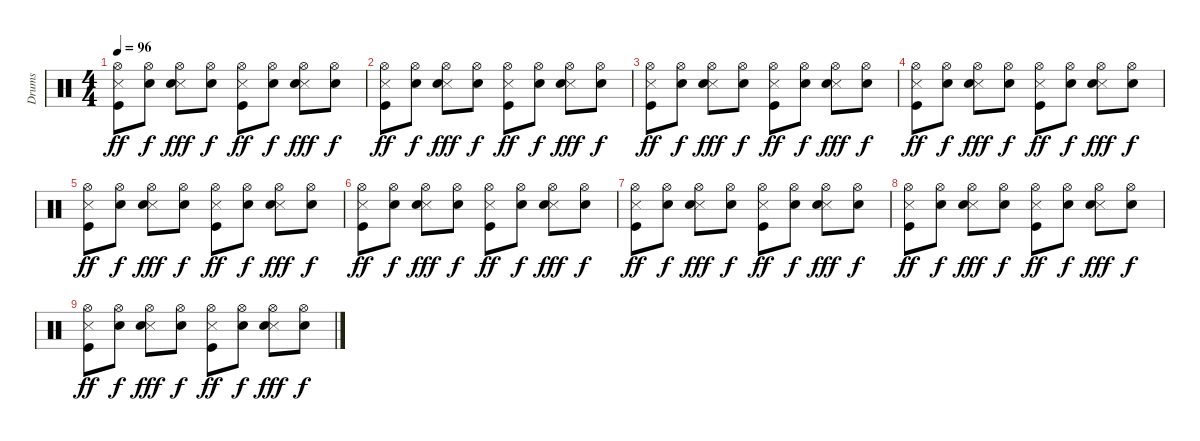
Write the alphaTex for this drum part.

\track ("Drums" "Drums") {instrument percussion}
\staff {score}
\articulation defaults
\ts (4 4)
\tempo 96
\clef neutral
\ks c
("Snare (side stick) 3" "Hi-Hat (open)" "Kick (hit)").8{dy ff} ("Hand Clap (hit)" "Hi-Hat (open)").8{dy f} ("Snare (side stick) 3" "Hi-Hat (open)" "Snare (hit) 2").8{dy fff} ("Hand Clap (hit)" "Hi-Hat (open)").8{dy f} ("Snare (side stick) 3" "Hi-Hat (open)" "Kick (hit)").8{dy ff} ("Hand Clap (hit)" "Hi-Hat (open)").8{dy f} ("Snare (side stick) 3" "Hi-Hat (open)" "Snare (hit) 2").8{dy fff} ("Hand Clap (hit)" "Hi-Hat (open)").8{dy f} |
("Snare (side stick) 3" "Hi-Hat (open)" "Kick (hit)").8{dy ff} ("Hand Clap (hit)" "Hi-Hat (open)").8{dy f} ("Snare (side stick) 3" "Hi-Hat (open)" "Snare (hit) 2").8{dy fff} ("Hand Clap (hit)" "Hi-Hat (open)").8{dy f} ("Snare (side stick) 3" "Hi-Hat (open)" "Kick (hit)").8{dy ff} ("Hand Clap (hit)" "Hi-Hat (open)").8{dy f} ("Snare (side stick) 3" "Hi-Hat (open)" "Snare (hit) 2").8{dy fff} ("Hand Clap (hit)" "Hi-Hat (open)").8{dy f} |
("Snare (side stick) 3" "Hi-Hat (open)" "Kick (hit)").8{dy ff} ("Hand Clap (hit)" "Hi-Hat (open)").8{dy f} ("Snare (side stick) 3" "Hi-Hat (open)" "Snare (hit) 2").8{dy fff} ("Hand Clap (hit)" "Hi-Hat (open)").8{dy f} ("Snare (side stick) 3" "Hi-Hat (open)" "Kick (hit)").8{dy ff} ("Hand Clap (hit)" "Hi-Hat (open)").8{dy f} ("Snare (side stick) 3" "Hi-Hat (open)" "Snare (hit) 2").8{dy fff} ("Hand Clap (hit)" "Hi-Hat (open)").8{dy f} |
("Snare (side stick) 3" "Hi-Hat (open)" "Kick (hit)").8{dy ff} ("Hand Clap (hit)" "Hi-Hat (open)").8{dy f} ("Snare (side stick) 3" "Hi-Hat (open)" "Snare (hit) 2").8{dy fff} ("Hand Clap (hit)" "Hi-Hat (open)").8{dy f} ("Snare (side stick) 3" "Hi-Hat (open)" "Kick (hit)").8{dy ff} ("Hand Clap (hit)" "Hi-Hat (open)").8{dy f} ("Snare (side stick) 3" "Hi-Hat (open)" "Snare (hit) 2").8{dy fff} ("Hand Clap (hit)" "Hi-Hat (open)").8{dy f} |
("Snare (side stick) 3" "Hi-Hat (open)" "Kick (hit)").8{dy ff} ("Hand Clap (hit)" "Hi-Hat (open)").8{dy f} ("Snare (side stick) 3" "Hi-Hat (open)" "Snare (hit) 2").8{dy fff} ("Hand Clap (hit)" "Hi-Hat (open)").8{dy f} ("Snare (side stick) 3" "Hi-Hat (open)" "Kick (hit)").8{dy ff} ("Hand Clap (hit)" "Hi-Hat (open)").8{dy f} ("Snare (side stick) 3" "Hi-Hat (open)" "Snare (hit) 2").8{dy fff} ("Hand Clap (hit)" "Hi-Hat (open)").8{dy f} |
("Snare (side stick) 3" "Hi-Hat (open)" "Kick (hit)").8{dy ff} ("Hand Clap (hit)" "Hi-Hat (open)").8{dy f} ("Snare (side stick) 3" "Hi-Hat (open)" "Snare (hit) 2").8{dy fff} ("Hand Clap (hit)" "Hi-Hat (open)").8{dy f} ("Snare (side stick) 3" "Hi-Hat (open)" "Kick (hit)").8{dy ff} ("Hand Clap (hit)" "Hi-Hat (open)").8{dy f} ("Snare (side stick) 3" "Hi-Hat (open)" "Snare (hit) 2").8{dy fff} ("Hand Clap (hit)" "Hi-Hat (open)").8{dy f} |
("Snare (side stick) 3" "Hi-Hat (open)" "Kick (hit)").8{dy ff} ("Hand Clap (hit)" "Hi-Hat (open)").8{dy f} ("Snare (side stick) 3" "Hi-Hat (open)" "Snare (hit) 2").8{dy fff} ("Hand Clap (hit)" "Hi-Hat (open)").8{dy f} ("Snare (side stick) 3" "Hi-Hat (open)" "Kick (hit)").8{dy ff} ("Hand Clap (hit)" "Hi-Hat (open)").8{dy f} ("Snare (side stick) 3" "Hi-Hat (open)" "Snare (hit) 2").8{dy fff} ("Hand Clap (hit)" "Hi-Hat (open)").8{dy f} |
("Snare (side stick) 3" "Hi-Hat (open)" "Kick (hit)").8{dy ff} ("Hand Clap (hit)" "Hi-Hat (open)").8{dy f} ("Snare (side stick) 3" "Hi-Hat (open)" "Snare (hit) 2").8{dy fff} ("Hand Clap (hit)" "Hi-Hat (open)").8{dy f} ("Snare (side stick) 3" "Hi-Hat (open)" "Kick (hit)").8{dy ff} ("Hand Clap (hit)" "Hi-Hat (open)").8{dy f} ("Snare (side stick) 3" "Hi-Hat (open)" "Snare (hit) 2").8{dy fff} ("Hand Clap (hit)" "Hi-Hat (open)").8{dy f} |
("Snare (side stick) 3" "Hi-Hat (open)" "Kick (hit)").8{dy ff} ("Hand Clap (hit)" "Hi-Hat (open)").8{dy f} ("Snare (side stick) 3" "Hi-Hat (open)" "Snare (hit) 2").8{dy fff} ("Hand Clap (hit)" "Hi-Hat (open)").8{dy f} ("Snare (side stick) 3" "Hi-Hat (open)" "Kick (hit)").8{dy ff} ("Hand Clap (hit)" "Hi-Hat (open)").8{dy f} ("Snare (side stick) 3" "Hi-Hat (open)" "Snare (hit) 2").8{dy fff} ("Hand Clap (hit)" "Hi-Hat (open)").8{dy f}
